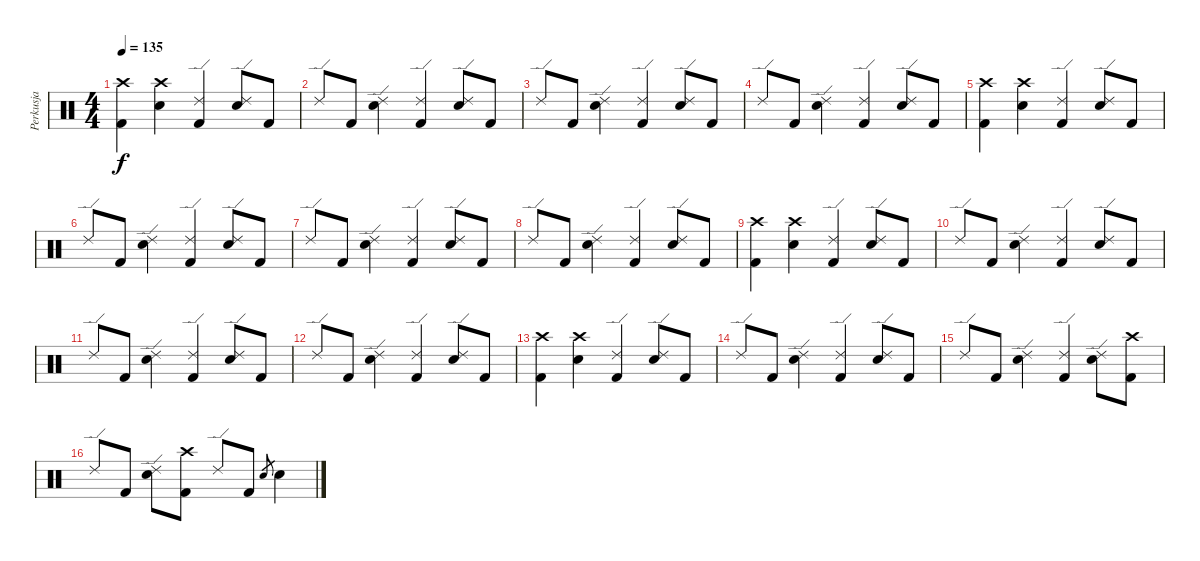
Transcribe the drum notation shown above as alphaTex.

\track ("Perkusja" "Perkusja") {instrument percussion}
\staff {score}
\articulation defaults
\ts (4 4)
\tempo 135
\clef neutral
\ks c
("Kick (hit) 2" "Crash high (hit)").4{dy f} ("Electric Snare (hit)" "Crash high (hit)").4 ("Kick (hit) 2" "Ride (edge) 2").4 ("Electric Snare (hit)" "Ride (edge) 2").8 "Kick (hit) 2".8 |
"Ride (edge) 2".8 "Kick (hit) 2".8 ("Electric Snare (hit)" "Ride (edge) 2").4 ("Kick (hit) 2" "Ride (edge) 2").4 ("Electric Snare (hit)" "Ride (edge) 2").8 "Kick (hit) 2".8 |
"Ride (edge) 2".8 "Kick (hit) 2".8 ("Electric Snare (hit)" "Ride (edge) 2").4 ("Kick (hit) 2" "Ride (edge) 2").4 ("Electric Snare (hit)" "Ride (edge) 2").8 "Kick (hit) 2".8 |
"Ride (edge) 2".8 "Kick (hit) 2".8 ("Electric Snare (hit)" "Ride (edge) 2").4 ("Kick (hit) 2" "Ride (edge) 2").4 ("Electric Snare (hit)" "Ride (edge) 2").8 "Kick (hit) 2".8 |
("Kick (hit) 2" "Crash high (hit)").4 ("Electric Snare (hit)" "Crash high (hit)").4 ("Kick (hit) 2" "Ride (edge) 2").4 ("Electric Snare (hit)" "Ride (edge) 2").8 "Kick (hit) 2".8 |
"Ride (edge) 2".8 "Kick (hit) 2".8 ("Electric Snare (hit)" "Ride (edge) 2").4 ("Kick (hit) 2" "Ride (edge) 2").4 ("Electric Snare (hit)" "Ride (edge) 2").8 "Kick (hit) 2".8 |
"Ride (edge) 2".8 "Kick (hit) 2".8 ("Electric Snare (hit)" "Ride (edge) 2").4 ("Kick (hit) 2" "Ride (edge) 2").4 ("Electric Snare (hit)" "Ride (edge) 2").8 "Kick (hit) 2".8 |
"Ride (edge) 2".8 "Kick (hit) 2".8 ("Electric Snare (hit)" "Ride (edge) 2").4 ("Kick (hit) 2" "Ride (edge) 2").4 ("Electric Snare (hit)" "Ride (edge) 2").8 "Kick (hit) 2".8 |
("Kick (hit) 2" "Crash high (hit)").4 ("Electric Snare (hit)" "Crash high (hit)").4 ("Kick (hit) 2" "Ride (edge) 2").4 ("Electric Snare (hit)" "Ride (edge) 2").8 "Kick (hit) 2".8 |
"Ride (edge) 2".8 "Kick (hit) 2".8 ("Electric Snare (hit)" "Ride (edge) 2").4 ("Kick (hit) 2" "Ride (edge) 2").4 ("Electric Snare (hit)" "Ride (edge) 2").8 "Kick (hit) 2".8 |
"Ride (edge) 2".8 "Kick (hit) 2".8 ("Electric Snare (hit)" "Ride (edge) 2").4 ("Kick (hit) 2" "Ride (edge) 2").4 ("Electric Snare (hit)" "Ride (edge) 2").8 "Kick (hit) 2".8 |
"Ride (edge) 2".8 "Kick (hit) 2".8 ("Electric Snare (hit)" "Ride (edge) 2").4 ("Kick (hit) 2" "Ride (edge) 2").4 ("Electric Snare (hit)" "Ride (edge) 2").8 "Kick (hit) 2".8 |
("Kick (hit) 2" "Crash high (hit)").4 ("Electric Snare (hit)" "Crash high (hit)").4 ("Kick (hit) 2" "Ride (edge) 2").4 ("Electric Snare (hit)" "Ride (edge) 2").8 "Kick (hit) 2".8 |
"Ride (edge) 2".8 "Kick (hit) 2".8 ("Electric Snare (hit)" "Ride (edge) 2").4 ("Kick (hit) 2" "Ride (edge) 2").4 ("Electric Snare (hit)" "Ride (edge) 2").8 "Kick (hit) 2".8 |
"Ride (edge) 2".8 "Kick (hit) 2".8 ("Electric Snare (hit)" "Ride (edge) 2").4 ("Kick (hit) 2" "Ride (edge) 2").4 ("Electric Snare (hit)" "Ride (edge) 2").8 ("Kick (hit) 2" "Crash high (hit)").8 |
"Ride (edge) 2".8 "Kick (hit) 2".8 ("Electric Snare (hit)" "Ride (edge) 2").8 ("Kick (hit) 2" "Crash high (hit)").8 "Ride (edge) 2".8 "Kick (hit) 2".8 "Electric Snare (hit)".8{gr} "Electric Snare (hit)".4
